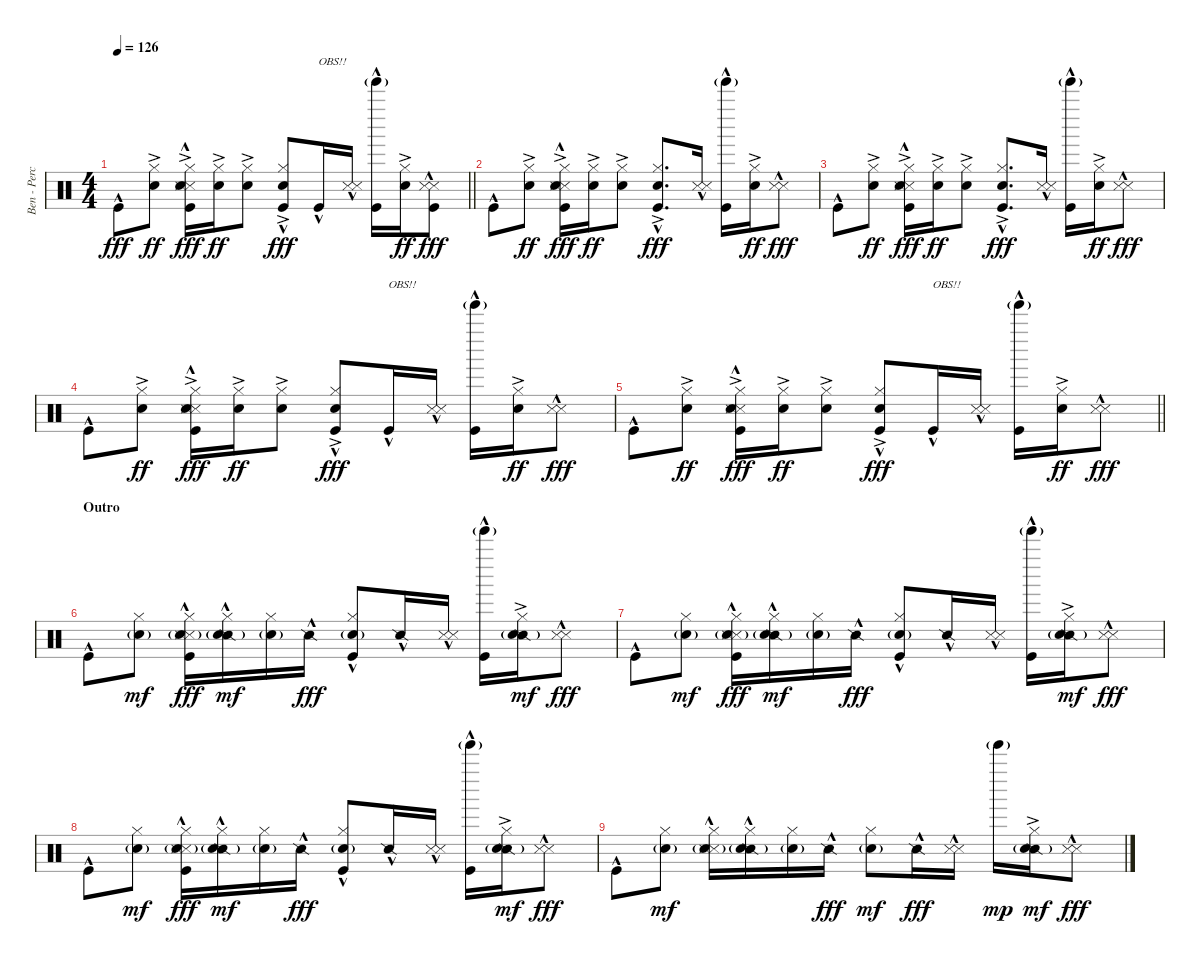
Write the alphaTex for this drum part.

\track ("Ben - Percussion" "Ben - Perc") {instrument percussion}
\staff {score}
\articulation defaults
\ts (4 4)
\tempo 126
\clef neutral
\barLineRight lightlight
\ks c "Kick (hit)"{hac}.8{dy fff}
("Hi-Hat (closed)"{ac} "Snare (hit) 2").8{dy ff} ("Hi-Hat (closed)"{ac} "Metronome (hit)"{hac} "Snare (side stick) 3"{hac} "Snare (hit) 2" "Kick (hit)"{hac}).16{dy fff} ("Hi-Hat (closed)"{ac} "Snare (hit) 2").16{dy ff} ("Hi-Hat (closed)"{ac} "Snare (hit) 2").8 ("Hi-Hat (closed)"{ac} "Snare (hit) 2" "Kick (hit)"{hac}).8{dy fff} "Kick (hit)"{hac}.16{txt "OBS!!"} ("Metronome (hit)"{hac} "Snare (side stick) 3"{hac}).16 ("Tinkle Bell (hit)"{g} "Kick (hit)"{hac}).16 ("Hi-Hat (closed)"{ac} "Snare (hit) 2").16{dy ff} ("Metronome (hit)"{hac} "Snare (side stick) 3"{hac} "Kick (hit)"{hac}).8{dy fff} |
"Kick (hit)"{hac}.8 ("Hi-Hat (closed)"{ac} "Snare (hit) 2").8{dy ff} ("Hi-Hat (closed)"{ac} "Metronome (hit)"{hac} "Snare (side stick) 3"{hac} "Snare (hit) 2" "Kick (hit)"{hac}).16{dy fff} ("Hi-Hat (closed)"{ac} "Snare (hit) 2").16{dy ff} ("Hi-Hat (closed)"{ac} "Snare (hit) 2").8 ("Hi-Hat (closed)"{ac} "Snare (hit) 2" "Kick (hit)"{hac}).8{d dy fff} ("Metronome (hit)"{hac} "Snare (side stick) 3"{hac}).16 ("Tinkle Bell (hit)"{g} "Kick (hit)"{hac}).16 ("Hi-Hat (closed)"{ac} "Snare (hit) 2").16{dy ff} ("Metronome (hit)"{hac} "Snare (side stick) 3"{hac}).8{dy fff} |
"Kick (hit)"{hac}.8 ("Hi-Hat (closed)"{ac} "Snare (hit) 2").8{dy ff} ("Hi-Hat (closed)"{ac} "Metronome (hit)"{hac} "Snare (side stick) 3"{hac} "Snare (hit) 2" "Kick (hit)"{hac}).16{dy fff} ("Hi-Hat (closed)"{ac} "Snare (hit) 2").16{dy ff} ("Hi-Hat (closed)"{ac} "Snare (hit) 2").8 ("Hi-Hat (closed)"{ac} "Snare (hit) 2" "Kick (hit)"{hac}).8{d dy fff} ("Metronome (hit)"{hac} "Snare (side stick) 3"{hac}).16 ("Tinkle Bell (hit)"{g} "Kick (hit)"{hac}).16 ("Hi-Hat (closed)"{ac} "Snare (hit) 2").16{dy ff} ("Metronome (hit)"{hac} "Snare (side stick) 3"{hac}).8{dy fff} |
"Kick (hit)"{hac}.8 ("Hi-Hat (closed)"{ac} "Snare (hit) 2").8{dy ff} ("Hi-Hat (closed)"{ac} "Metronome (hit)"{hac} "Snare (side stick) 3"{hac} "Snare (hit) 2" "Kick (hit)"{hac}).16{dy fff} ("Hi-Hat (closed)"{ac} "Snare (hit) 2").16{dy ff} ("Hi-Hat (closed)"{ac} "Snare (hit) 2").8 ("Hi-Hat (closed)"{ac} "Snare (hit) 2" "Kick (hit)"{hac}).8{dy fff} "Kick (hit)"{hac}.16{txt "OBS!!"} ("Metronome (hit)"{hac} "Snare (side stick) 3"{hac}).16 ("Tinkle Bell (hit)"{g} "Kick (hit)"{hac}).16 ("Hi-Hat (closed)"{ac} "Snare (hit) 2").16{dy ff} ("Metronome (hit)"{hac} "Snare (side stick) 3"{hac}).8{dy fff} |
\barLineRight lightlight "Kick (hit)"{hac}.8
("Hi-Hat (closed)"{ac} "Snare (hit) 2").8{dy ff} ("Hi-Hat (closed)"{ac} "Metronome (hit)"{hac} "Snare (side stick) 3"{hac} "Snare (hit) 2" "Kick (hit)"{hac}).16{dy fff} ("Hi-Hat (closed)"{ac} "Snare (hit) 2").16{dy ff} ("Hi-Hat (closed)"{ac} "Snare (hit) 2").8 ("Hi-Hat (closed)"{ac} "Snare (hit) 2" "Kick (hit)"{hac}).8{dy fff} "Kick (hit)"{hac}.16{txt "OBS!!"} ("Metronome (hit)"{hac} "Snare (side stick) 3"{hac}).16 ("Tinkle Bell (hit)"{g} "Kick (hit)"{hac}).16 ("Hi-Hat (closed)"{ac} "Snare (hit) 2").16{dy ff} ("Metronome (hit)"{hac} "Snare (side stick) 3"{hac}).8{dy fff} |
\section ("" "Outro")
"Kick (hit)"{hac}.8 ("Hi-Hat (closed)" "Snare (hit) 2"{g}).8{dy mf} ("Hi-Hat (closed)" "Metronome (hit)"{hac} "Snare (side stick) 3"{hac} "Snare (hit) 2"{g} "Kick (hit)"{hac}).16{dy fff} ("Hi-Hat (closed)" "Snare (side stick) 2"{hac} "Snare (hit) 2"{g}).16{dy mf} ("Hi-Hat (closed)" "Snare (hit) 2"{g}).16 "Snare (side stick) 2"{hac}.16{dy fff} ("Hi-Hat (closed)" "Snare (hit) 2"{g} "Kick (hit)"{hac}).8 "Snare (side stick) 2"{hac}.16 ("Metronome (hit)"{hac} "Snare (side stick) 3"{hac}).16 ("Tinkle Bell (hit)"{g} "Kick (hit)"{hac}).16 ("Hi-Hat (closed)"{ac} "Snare (side stick) 2" "Snare (hit) 2"{g}).16{dy mf} ("Metronome (hit)"{hac} "Snare (side stick) 3"{hac}).8{dy fff} |
"Kick (hit)"{hac}.8 ("Hi-Hat (closed)" "Snare (hit) 2"{g}).8{dy mf} ("Hi-Hat (closed)" "Metronome (hit)"{hac} "Snare (side stick) 3"{hac} "Snare (hit) 2"{g} "Kick (hit)"{hac}).16{dy fff} ("Hi-Hat (closed)" "Snare (side stick) 2"{hac} "Snare (hit) 2"{g}).16{dy mf} ("Hi-Hat (closed)" "Snare (hit) 2"{g}).16 "Snare (side stick) 2"{hac}.16{dy fff} ("Hi-Hat (closed)" "Snare (hit) 2"{g} "Kick (hit)"{hac}).8 "Snare (side stick) 2"{hac}.16 ("Metronome (hit)"{hac} "Snare (side stick) 3"{hac}).16 ("Tinkle Bell (hit)"{g} "Kick (hit)"{hac}).16 ("Hi-Hat (closed)"{ac} "Snare (side stick) 2" "Snare (hit) 2"{g}).16{dy mf} ("Metronome (hit)"{hac} "Snare (side stick) 3"{hac}).8{dy fff} |
"Kick (hit)"{hac}.8 ("Hi-Hat (closed)" "Snare (hit) 2"{g}).8{dy mf} ("Hi-Hat (closed)" "Metronome (hit)"{hac} "Snare (side stick) 3"{hac} "Snare (hit) 2"{g} "Kick (hit)"{hac}).16{dy fff} ("Hi-Hat (closed)" "Snare (side stick) 2"{hac} "Snare (hit) 2"{g}).16{dy mf} ("Hi-Hat (closed)" "Snare (hit) 2"{g}).16 "Snare (side stick) 2"{hac}.16{dy fff} ("Hi-Hat (closed)" "Snare (hit) 2"{g} "Kick (hit)"{hac}).8 "Snare (side stick) 2"{hac}.16 ("Metronome (hit)"{hac} "Snare (side stick) 3"{hac}).16 ("Tinkle Bell (hit)"{g} "Kick (hit)"{hac}).16 ("Hi-Hat (closed)"{ac} "Snare (side stick) 2" "Snare (hit) 2"{g}).16{dy mf} ("Metronome (hit)"{hac} "Snare (side stick) 3"{hac}).8{dy fff} |
"Kick (hit)"{hac}.8 ("Hi-Hat (closed)" "Snare (hit) 2"{g}).8{dy mf} ("Hi-Hat (closed)" "Metronome (hit)"{hac} "Snare (side stick) 3"{hac} "Snare (hit) 2"{g}).16 ("Hi-Hat (closed)" "Snare (side stick) 2"{hac} "Snare (hit) 2"{g}).16 ("Hi-Hat (closed)" "Snare (hit) 2"{g}).16 "Snare (side stick) 2"{hac}.16{dy fff} ("Hi-Hat (closed)" "Snare (hit) 2"{g}).8{dy mf} "Snare (side stick) 2"{hac}.16{dy fff} ("Metronome (hit)"{hac} "Snare (side stick) 3"{hac}).16 "Tinkle Bell (hit)"{g}.16{dy mp} ("Hi-Hat (closed)"{ac} "Snare (side stick) 2" "Snare (hit) 2"{g}).16{dy mf} ("Metronome (hit)"{hac} "Snare (side stick) 3"{hac}).8{dy fff}
